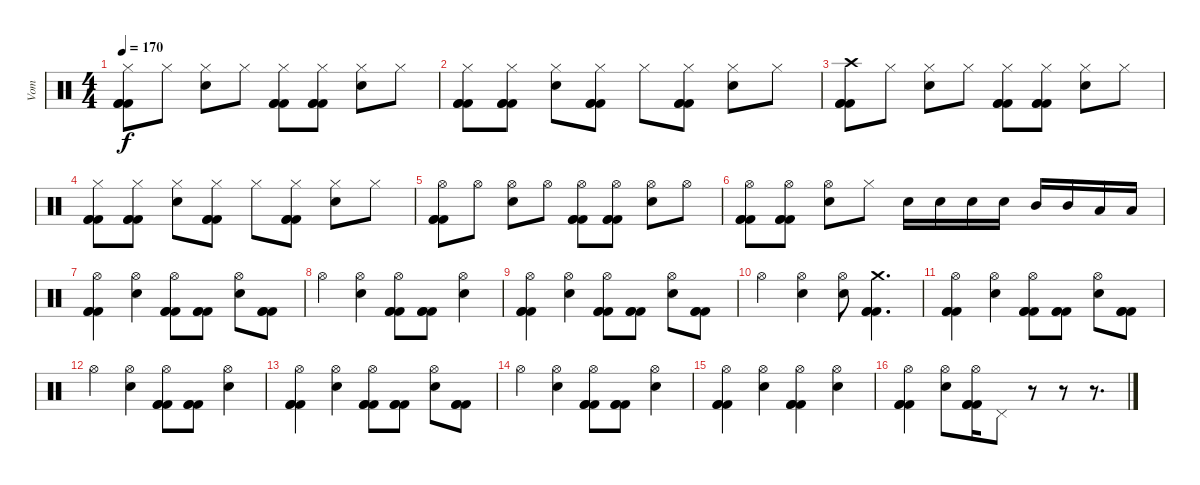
\track ("Vom" "Vom") {instrument percussion}
\staff {score}
\articulation defaults
\ts (4 4)
\tempo 170
\clef neutral
\ks c
("Hi-Hat (closed)" "Kick (hit) 2" "Kick (hit) 2" "Kick (hit) 2").8{dy f} "Hi-Hat (closed)".8 ("Hi-Hat (closed)" "Snare (hit) 2").8 "Hi-Hat (closed)".8 ("Hi-Hat (closed)" "Kick (hit) 2" "Kick (hit) 2" "Kick (hit) 2").8 ("Hi-Hat (closed)" "Kick (hit) 2" "Kick (hit) 2" "Kick (hit) 2").8 ("Hi-Hat (closed)" "Snare (hit) 2").8 "Hi-Hat (closed)".8 |
("Hi-Hat (closed)" "Kick (hit) 2" "Kick (hit) 2" "Kick (hit) 2").8 ("Hi-Hat (closed)" "Kick (hit) 2" "Kick (hit) 2" "Kick (hit) 2").8 ("Hi-Hat (closed)" "Snare (hit) 2").8 ("Hi-Hat (closed)" "Kick (hit) 2" "Kick (hit) 2" "Kick (hit) 2").8 "Hi-Hat (closed)".8 ("Hi-Hat (closed)" "Kick (hit) 2" "Kick (hit) 2" "Kick (hit) 2").8 ("Hi-Hat (closed)" "Snare (hit) 2").8 "Hi-Hat (closed)".8 |
("Crash high (hit)" "Kick (hit) 2" "Kick (hit) 2" "Kick (hit) 2").8 "Hi-Hat (closed)".8 ("Hi-Hat (closed)" "Snare (hit) 2").8 "Hi-Hat (closed)".8 ("Hi-Hat (closed)" "Kick (hit) 2" "Kick (hit) 2" "Kick (hit) 2").8 ("Hi-Hat (closed)" "Kick (hit) 2" "Kick (hit) 2" "Kick (hit) 2").8 ("Hi-Hat (closed)" "Snare (hit) 2").8 "Hi-Hat (closed)".8 |
("Hi-Hat (closed)" "Kick (hit) 2" "Kick (hit) 2" "Kick (hit) 2").8 ("Hi-Hat (closed)" "Kick (hit) 2" "Kick (hit) 2" "Kick (hit) 2").8 ("Hi-Hat (closed)" "Snare (hit) 2").8 ("Hi-Hat (closed)" "Kick (hit) 2" "Kick (hit) 2" "Kick (hit) 2").8 "Hi-Hat (closed)".8 ("Hi-Hat (closed)" "Kick (hit) 2" "Kick (hit) 2" "Kick (hit) 2").8 ("Hi-Hat (closed)" "Snare (hit) 2").8 "Hi-Hat (closed)".8 |
("Hi-Hat (open)" "Kick (hit) 2" "Kick (hit) 2" "Kick (hit) 2").8 "Hi-Hat (open)".8 ("Hi-Hat (open)" "Snare (hit) 2").8 "Hi-Hat (open)".8 ("Hi-Hat (open)" "Kick (hit) 2" "Kick (hit) 2" "Kick (hit) 2").8 ("Hi-Hat (open)" "Kick (hit) 2" "Kick (hit) 2" "Kick (hit) 2").8 ("Hi-Hat (open)" "Snare (hit) 2").8 "Hi-Hat (open)".8 |
("Hi-Hat (open)" "Kick (hit) 2" "Kick (hit) 2" "Kick (hit) 2").8 ("Hi-Hat (open)" "Kick (hit) 2" "Kick (hit) 2" "Kick (hit) 2").8 ("Hi-Hat (open)" "Snare (hit) 2").8 "Hi-Hat (closed)".8 "Snare (hit) 2".16 "Snare (hit) 2".16 "Snare (hit) 2".16 "Snare (hit) 2".16 "Mid Tom (hit)".16 "Mid Tom (hit)".16 "Low Tom (hit)".16 "Low Tom (hit)".16 |
("Hi-Hat (open)" "Kick (hit) 2" "Kick (hit) 2" "Kick (hit) 2").4 ("Hi-Hat (open)" "Snare (hit) 2").4 ("Hi-Hat (open)" "Kick (hit) 2" "Kick (hit) 2" "Kick (hit) 2").8 ("Kick (hit) 2" "Kick (hit) 2" "Kick (hit) 2").8 ("Hi-Hat (open)" "Snare (hit) 2").8 ("Kick (hit) 2" "Kick (hit) 2" "Kick (hit) 2").8 |
"Hi-Hat (open)".4 ("Hi-Hat (open)" "Snare (hit) 2").4 ("Hi-Hat (open)" "Kick (hit) 2" "Kick (hit) 2" "Kick (hit) 2").8 ("Kick (hit) 2" "Kick (hit) 2" "Kick (hit) 2").8 ("Hi-Hat (open)" "Snare (hit) 2").4 |
("Hi-Hat (open)" "Kick (hit) 2" "Kick (hit) 2" "Kick (hit) 2").4 ("Hi-Hat (open)" "Snare (hit) 2").4 ("Hi-Hat (open)" "Kick (hit) 2" "Kick (hit) 2" "Kick (hit) 2").8 ("Kick (hit) 2" "Kick (hit) 2" "Kick (hit) 2").8 ("Hi-Hat (open)" "Snare (hit) 2").8 ("Kick (hit) 2" "Kick (hit) 2" "Kick (hit) 2").8 |
"Hi-Hat (open)".4 ("Hi-Hat (open)" "Snare (hit) 2").4 ("Hi-Hat (open)" "Snare (hit) 2").8 ("Crash medium (hit)" "Kick (hit) 2" "Kick (hit) 2" "Kick (hit) 2").4{d} |
("Hi-Hat (open)" "Kick (hit) 2" "Kick (hit) 2" "Kick (hit) 2").4 ("Hi-Hat (open)" "Snare (hit) 2").4 ("Hi-Hat (open)" "Kick (hit) 2" "Kick (hit) 2" "Kick (hit) 2").8 ("Kick (hit) 2" "Kick (hit) 2" "Kick (hit) 2").8 ("Hi-Hat (open)" "Snare (hit) 2").8 ("Kick (hit) 2" "Kick (hit) 2" "Kick (hit) 2").8 |
"Hi-Hat (open)".4 ("Hi-Hat (open)" "Snare (hit) 2").4 ("Hi-Hat (open)" "Kick (hit) 2" "Kick (hit) 2" "Kick (hit) 2").8 ("Kick (hit) 2" "Kick (hit) 2" "Kick (hit) 2").8 ("Hi-Hat (open)" "Snare (hit) 2").4 |
("Hi-Hat (open)" "Kick (hit) 2" "Kick (hit) 2" "Kick (hit) 2").4 ("Hi-Hat (open)" "Snare (hit) 2").4 ("Hi-Hat (open)" "Kick (hit) 2" "Kick (hit) 2" "Kick (hit) 2").8 ("Kick (hit) 2" "Kick (hit) 2" "Kick (hit) 2").8 ("Hi-Hat (open)" "Snare (hit) 2").8 ("Kick (hit) 2" "Kick (hit) 2" "Kick (hit) 2").8 |
"Hi-Hat (open)".4 ("Hi-Hat (open)" "Snare (hit) 2").4 ("Hi-Hat (open)" "Kick (hit) 2" "Kick (hit) 2" "Kick (hit) 2").8 ("Kick (hit) 2" "Kick (hit) 2" "Kick (hit) 2").8 ("Hi-Hat (open)" "Snare (hit) 2").4 |
("Hi-Hat (open)" "Kick (hit) 2" "Kick (hit) 2" "Kick (hit) 2").4 ("Hi-Hat (open)" "Snare (hit) 2").4 ("Hi-Hat (open)" "Kick (hit) 2" "Kick (hit) 2" "Kick (hit) 2").4 ("Hi-Hat (open)" "Snare (hit) 2").4 |
("Hi-Hat (open)" "Kick (hit) 2" "Kick (hit) 2" "Kick (hit) 2").4 ("Hi-Hat (open)" "Snare (hit) 2").8 ("Hi-Hat (open)" "Kick (hit) 2" "Kick (hit) 2" "Kick (hit) 2").16 "Pedal Hi-Hat (hit)".8 r.8 r.8 r.8{d}
